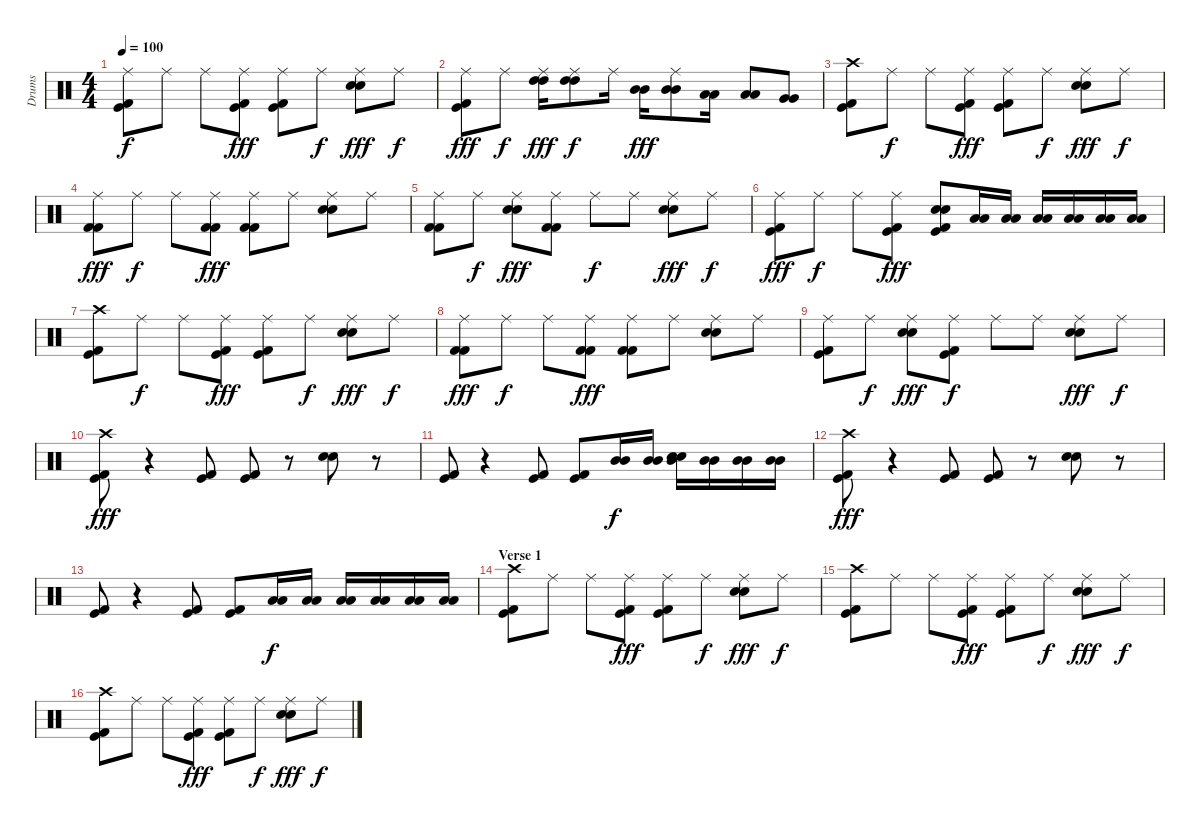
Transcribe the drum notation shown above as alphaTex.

\track ("Drums" "Drums") {instrument percussion}
\staff {score}
\articulation defaults
\ts (4 4)
\tempo 100
\clef neutral
\ks c
("Ride (middle)" "Kick (hit) 2" "Kick (hit)").8{dy f} "Ride (middle)".8 "Ride (middle)".8 ("Ride (middle)" "Kick (hit) 2" "Kick (hit)").8{dy fff} ("Ride (middle)" "Kick (hit) 2" "Kick (hit)").8 "Ride (middle)".8{dy f} ("Ride (middle)" "Electric Snare (hit)" "Snare (hit) 2").8{dy fff} "Ride (middle)".8{dy f} |
("Ride (middle)" "Kick (hit) 2" "Kick (hit)").8{dy fff} "Ride (middle)".8{dy f} ("Ride (middle)" "High Tom (hit)" "High Tom (hit)").16{dy fff} ("Ride (middle)" "High Tom (hit)" "High Tom (hit)").8{dy f} "Ride (middle)".16 ("Mid Tom (hit)" "Mid Tom (hit)").16{dy fff} ("Ride (middle)" "Mid Tom (hit)" "Mid Tom (hit)").8 ("Low Tom (hit)" "Low Tom (hit)").16 ("Low Tom (hit)" "Low Tom (hit)").8 ("Very Low Tom (hit)" "Very Low Tom (hit)").8 |
("Crash high (hit)" "Kick (hit) 2" "Kick (hit)").8 "Ride (middle)".8{dy f} "Ride (middle)".8 ("Ride (middle)" "Kick (hit) 2" "Kick (hit)").8{dy fff} ("Ride (middle)" "Kick (hit) 2" "Kick (hit)").8 "Ride (middle)".8{dy f} ("Ride (middle)" "Electric Snare (hit)" "Electric Snare (hit)").8{dy fff} "Ride (middle)".8{dy f} |
("Ride (middle)" "Kick (hit) 2" "Kick (hit) 2").8{dy fff} "Ride (middle)".8{dy f} "Ride (middle)".8 ("Ride (middle)" "Kick (hit) 2" "Kick (hit) 2").8{dy fff} ("Ride (middle)" "Kick (hit) 2" "Kick (hit) 2").8 "Ride (middle)".8 ("Ride (middle)" "Electric Snare (hit)" "Electric Snare (hit)").8 "Ride (middle)".8 |
("Ride (middle)" "Kick (hit) 2" "Kick (hit) 2").8 "Ride (middle)".8{dy f} ("Ride (middle)" "Electric Snare (hit)" "Electric Snare (hit)").8{dy fff} ("Ride (middle)" "Kick (hit) 2" "Kick (hit) 2").8 "Ride (middle)".8{dy f} "Ride (middle)".8 ("Ride (middle)" "Electric Snare (hit)" "Electric Snare (hit)").8{dy fff} "Ride (middle)".8{dy f} |
("Ride (middle)" "Kick (hit) 2" "Kick (hit)").8{dy fff} "Ride (middle)".8{dy f} "Ride (middle)".8 ("Ride (middle)" "Kick (hit) 2" "Kick (hit)").8{dy fff} ("Electric Snare (hit)" "Snare (hit) 2" "Kick (hit) 2" "Kick (hit)").8 ("Low Tom (hit)" "Low Tom (hit)").16 ("Low Tom (hit)" "Low Tom (hit)").16 ("Low Tom (hit)" "Low Tom (hit)").16 ("Low Tom (hit)" "Low Tom (hit)").16 ("Low Tom (hit)" "Low Tom (hit)").16 ("Low Tom (hit)" "Low Tom (hit)").16 |
("Crash high (hit)" "Kick (hit) 2" "Kick (hit)").8 "Ride (middle)".8{dy f} "Ride (middle)".8 ("Ride (middle)" "Kick (hit) 2" "Kick (hit)").8{dy fff} ("Ride (middle)" "Kick (hit) 2" "Kick (hit)").8 "Ride (middle)".8{dy f} ("Ride (middle)" "Electric Snare (hit)" "Electric Snare (hit)").8{dy fff} "Ride (middle)".8{dy f} |
("Ride (middle)" "Kick (hit) 2" "Kick (hit) 2").8{dy fff} "Ride (middle)".8{dy f} "Ride (middle)".8 ("Ride (middle)" "Kick (hit) 2" "Kick (hit) 2").8{dy fff} ("Ride (middle)" "Kick (hit) 2" "Kick (hit) 2").8 "Ride (middle)".8 ("Ride (middle)" "Electric Snare (hit)" "Electric Snare (hit)").8 "Ride (middle)".8 |
("Ride (middle)" "Kick (hit) 2" "Kick (hit)").8 "Ride (middle)".8{dy f} ("Ride (middle)" "Electric Snare (hit)" "Snare (hit) 2").8{dy fff} ("Ride (middle)" "Kick (hit) 2" "Kick (hit)").8{dy f} "Ride (middle)".8 "Ride (middle)".8 ("Ride (middle)" "Electric Snare (hit)" "Snare (hit) 2").8{dy fff} "Ride (middle)".8{dy f} |
("Crash high (hit)" "Kick (hit) 2" "Kick (hit)").8{dy fff} r.4 ("Kick (hit) 2" "Kick (hit)").8 ("Kick (hit) 2" "Kick (hit)").8 r.8 ("Electric Snare (hit)" "Electric Snare (hit)").8 r.8 |
("Kick (hit) 2" "Kick (hit)").8 r.4 ("Kick (hit) 2" "Kick (hit)").8 ("Kick (hit) 2" "Kick (hit)").8 ("Mid Tom (hit)" "Mid Tom (hit)").16{dy f} ("Mid Tom (hit)" "Mid Tom (hit)").16 ("Mid Tom (hit)" "Electric Snare (hit)" "Snare (hit) 2").16 ("Mid Tom (hit)" "Mid Tom (hit)").16 ("Mid Tom (hit)" "Mid Tom (hit)").16 ("Mid Tom (hit)" "Mid Tom (hit)").16 |
("Crash high (hit)" "Kick (hit) 2" "Kick (hit)").8{dy fff} r.4 ("Kick (hit) 2" "Kick (hit)").8 ("Kick (hit) 2" "Kick (hit)").8 r.8 ("Electric Snare (hit)" "Electric Snare (hit)").8 r.8 |
("Kick (hit) 2" "Kick (hit)").8 r.4 ("Kick (hit) 2" "Kick (hit)").8 ("Kick (hit) 2" "Kick (hit)").8 ("Low Tom (hit)" "Low Tom (hit)").16{dy f} ("Low Tom (hit)" "Low Tom (hit)").16 ("Low Tom (hit)" "Low Tom (hit)").16 ("Low Tom (hit)" "Low Tom (hit)").16 ("Low Tom (hit)" "Low Tom (hit)").16 ("Low Tom (hit)" "Low Tom (hit)").16 |
\section ("" "Verse 1")
("Crash high (hit)" "Kick (hit) 2" "Kick (hit)").8 "Ride (middle)".8 "Ride (middle)".8 ("Ride (middle)" "Kick (hit) 2" "Kick (hit)").8{dy fff} ("Ride (middle)" "Kick (hit) 2" "Kick (hit)").8 "Ride (middle)".8{dy f} ("Ride (middle)" "Electric Snare (hit)" "Snare (hit) 2").8{dy fff} "Ride (middle)".8{dy f} |
("Crash high (hit)" "Kick (hit) 2" "Kick (hit)").8 "Ride (middle)".8 "Ride (middle)".8 ("Ride (middle)" "Kick (hit) 2" "Kick (hit)").8{dy fff} ("Ride (middle)" "Kick (hit) 2" "Kick (hit)").8 "Ride (middle)".8{dy f} ("Ride (middle)" "Electric Snare (hit)" "Snare (hit) 2").8{dy fff} "Ride (middle)".8{dy f} |
("Crash high (hit)" "Kick (hit) 2" "Kick (hit)").8 "Ride (middle)".8 "Ride (middle)".8 ("Ride (middle)" "Kick (hit) 2" "Kick (hit)").8{dy fff} ("Ride (middle)" "Kick (hit) 2" "Kick (hit)").8 "Ride (middle)".8{dy f} ("Ride (middle)" "Electric Snare (hit)" "Snare (hit) 2").8{dy fff} "Ride (middle)".8{dy f}
